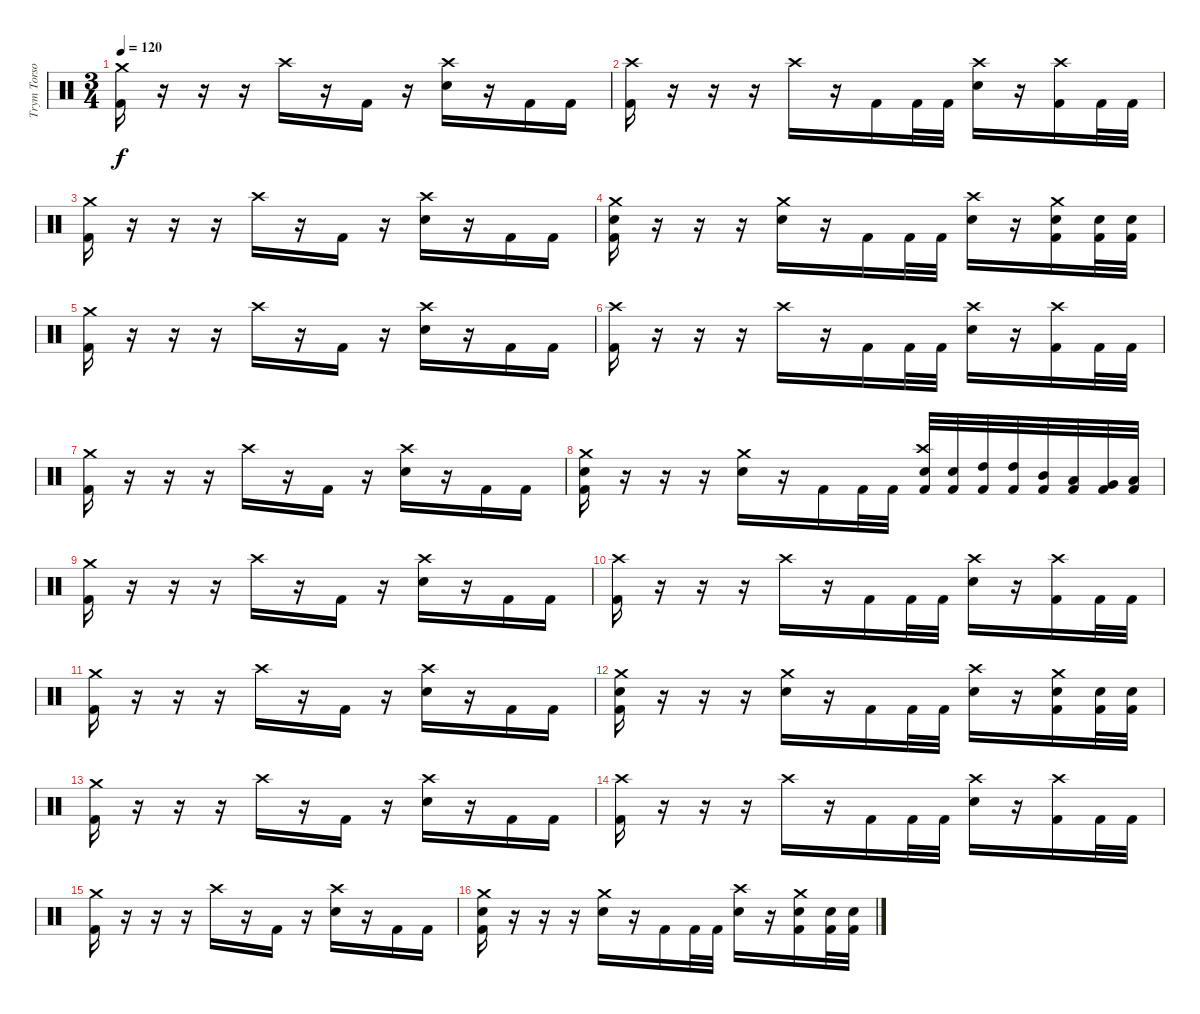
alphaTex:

\track ("Trym Torson" "Trym Torso") {instrument percussion}
\staff {score}
\articulation defaults
\ts (3 4)
\tempo 120
\clef neutral
\ks c
("Crash medium (hit)" "Kick (hit) 2").16{dy f} r.16 r.16 r.16 "Crash high (hit)".16 r.16 "Kick (hit) 2".16 r.16 ("Crash high (hit)" "Snare (hit) 2").16 r.16 "Kick (hit) 2".16 "Kick (hit) 2".16 |
("Crash high (hit)" "Kick (hit) 2").16 r.16 r.16 r.16 "Crash high (hit)".16 r.16 "Kick (hit) 2".16 "Kick (hit) 2".32 "Kick (hit) 2".32 ("Crash high (hit)" "Snare (hit) 2").16 r.16 ("Crash high (hit)" "Kick (hit) 2").16 "Kick (hit) 2".32 "Kick (hit) 2".32 |
("Crash medium (hit)" "Kick (hit) 2").16 r.16 r.16 r.16 "Crash high (hit)".16 r.16 "Kick (hit) 2".16 r.16 ("Crash high (hit)" "Snare (hit) 2").16 r.16 "Kick (hit) 2".16 "Kick (hit) 2".16 |
("Crash medium (hit)" "Snare (hit) 2" "Kick (hit) 2").16 r.16 r.16 r.16 ("Crash medium (hit)" "Snare (hit) 2").16 r.16 "Kick (hit) 2".16 "Kick (hit) 2".32 "Kick (hit) 2".32 ("Crash high (hit)" "Snare (hit) 2").16 r.16 ("Crash medium (hit)" "Snare (hit) 2" "Kick (hit) 2").16 ("Snare (hit) 2" "Kick (hit) 2").32 ("Snare (hit) 2" "Kick (hit) 2").32 |
("Crash medium (hit)" "Kick (hit) 2").16 r.16 r.16 r.16 "Crash high (hit)".16 r.16 "Kick (hit) 2".16 r.16 ("Crash high (hit)" "Snare (hit) 2").16 r.16 "Kick (hit) 2".16 "Kick (hit) 2".16 |
("Crash high (hit)" "Kick (hit) 2").16 r.16 r.16 r.16 "Crash high (hit)".16 r.16 "Kick (hit) 2".16 "Kick (hit) 2".32 "Kick (hit) 2".32 ("Crash high (hit)" "Snare (hit) 2").16 r.16 ("Crash high (hit)" "Kick (hit) 2").16 "Kick (hit) 2".32 "Kick (hit) 2".32 |
("Crash medium (hit)" "Kick (hit) 2").16 r.16 r.16 r.16 "Crash high (hit)".16 r.16 "Kick (hit) 2".16 r.16 ("Crash high (hit)" "Snare (hit) 2").16 r.16 "Kick (hit) 2".16 "Kick (hit) 2".16 |
("Crash medium (hit)" "Snare (hit) 2" "Kick (hit) 2").16 r.16 r.16 r.16 ("Crash medium (hit)" "Snare (hit) 2").16 r.16 "Kick (hit) 2".16 "Kick (hit) 2".32 "Kick (hit) 2".32 ("Crash high (hit)" "Snare (hit) 2" "Kick (hit) 2").32 ("Snare (hit) 2" "Kick (hit) 2").32 ("High Tom (hit)" "Kick (hit) 2").32 ("High Tom (hit)" "Kick (hit) 2").32 ("Mid Tom (hit)" "Kick (hit) 2").32 ("Low Tom (hit)" "Kick (hit) 2").32 ("Very Low Tom (hit)" "Kick (hit) 2").32 ("Low Floor Tom (hit)" "Kick (hit) 2").32 |
("Crash medium (hit)" "Kick (hit) 2").16 r.16 r.16 r.16 "Crash high (hit)".16 r.16 "Kick (hit) 2".16 r.16 ("Crash high (hit)" "Snare (hit) 2").16 r.16 "Kick (hit) 2".16 "Kick (hit) 2".16 |
("Crash high (hit)" "Kick (hit) 2").16 r.16 r.16 r.16 "Crash high (hit)".16 r.16 "Kick (hit) 2".16 "Kick (hit) 2".32 "Kick (hit) 2".32 ("Crash high (hit)" "Snare (hit) 2").16 r.16 ("Crash high (hit)" "Kick (hit) 2").16 "Kick (hit) 2".32 "Kick (hit) 2".32 |
("Crash medium (hit)" "Kick (hit) 2").16 r.16 r.16 r.16 "Crash high (hit)".16 r.16 "Kick (hit) 2".16 r.16 ("Crash high (hit)" "Snare (hit) 2").16 r.16 "Kick (hit) 2".16 "Kick (hit) 2".16 |
("Crash medium (hit)" "Snare (hit) 2" "Kick (hit) 2").16 r.16 r.16 r.16 ("Crash medium (hit)" "Snare (hit) 2").16 r.16 "Kick (hit) 2".16 "Kick (hit) 2".32 "Kick (hit) 2".32 ("Crash high (hit)" "Snare (hit) 2").16 r.16 ("Crash medium (hit)" "Snare (hit) 2" "Kick (hit) 2").16 ("Snare (hit) 2" "Kick (hit) 2").32 ("Snare (hit) 2" "Kick (hit) 2").32 |
("Crash medium (hit)" "Kick (hit) 2").16 r.16 r.16 r.16 "Crash high (hit)".16 r.16 "Kick (hit) 2".16 r.16 ("Crash high (hit)" "Snare (hit) 2").16 r.16 "Kick (hit) 2".16 "Kick (hit) 2".16 |
("Crash high (hit)" "Kick (hit) 2").16 r.16 r.16 r.16 "Crash high (hit)".16 r.16 "Kick (hit) 2".16 "Kick (hit) 2".32 "Kick (hit) 2".32 ("Crash high (hit)" "Snare (hit) 2").16 r.16 ("Crash high (hit)" "Kick (hit) 2").16 "Kick (hit) 2".32 "Kick (hit) 2".32 |
("Crash medium (hit)" "Kick (hit) 2").16 r.16 r.16 r.16 "Crash high (hit)".16 r.16 "Kick (hit) 2".16 r.16 ("Crash high (hit)" "Snare (hit) 2").16 r.16 "Kick (hit) 2".16 "Kick (hit) 2".16 |
("Crash medium (hit)" "Snare (hit) 2" "Kick (hit) 2").16 r.16 r.16 r.16 ("Crash medium (hit)" "Snare (hit) 2").16 r.16 "Kick (hit) 2".16 "Kick (hit) 2".32 "Kick (hit) 2".32 ("Crash high (hit)" "Snare (hit) 2").16 r.16 ("Crash medium (hit)" "Snare (hit) 2" "Kick (hit) 2").16 ("Snare (hit) 2" "Kick (hit) 2").32 ("Snare (hit) 2" "Kick (hit) 2").32
